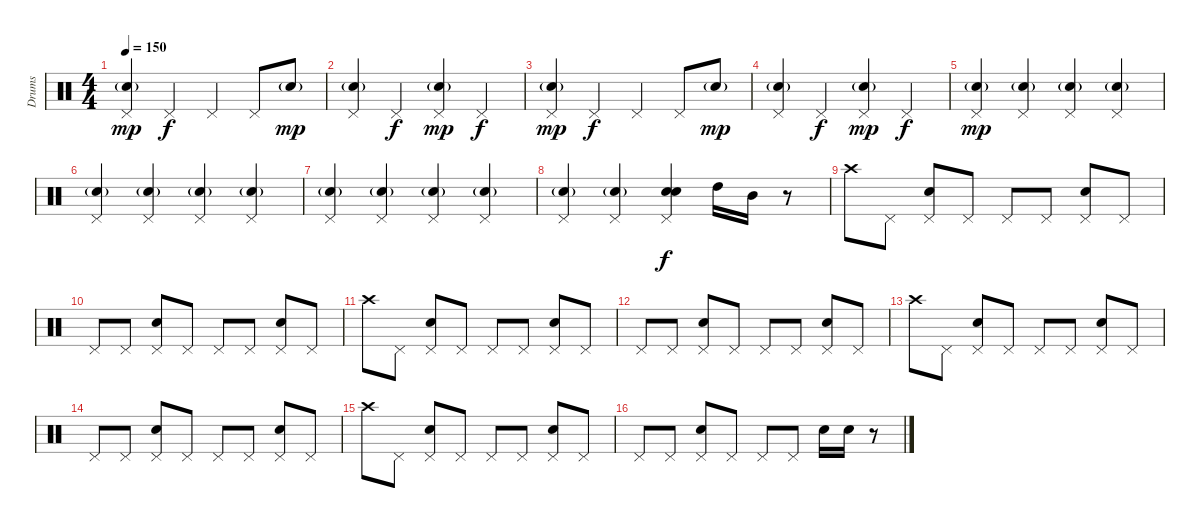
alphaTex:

\track ("Drums" "Drums") {instrument percussion}
\staff {score}
\articulation defaults
\ts (4 4)
\tempo 150
\clef neutral
\ks c
("Pedal Hi-Hat (hit)" "Snare (hit) 2"{g}).4{dy mp} "Pedal Hi-Hat (hit)".4{dy f} "Pedal Hi-Hat (hit)".4 "Pedal Hi-Hat (hit)".8 "Snare (hit) 2"{g}.8{dy mp} |
("Pedal Hi-Hat (hit)" "Snare (hit) 2"{g}).4 "Pedal Hi-Hat (hit)".4{dy f} ("Pedal Hi-Hat (hit)" "Snare (hit) 2"{g}).4{dy mp} "Pedal Hi-Hat (hit)".4{dy f} |
("Pedal Hi-Hat (hit)" "Snare (hit) 2"{g}).4{dy mp} "Pedal Hi-Hat (hit)".4{dy f} "Pedal Hi-Hat (hit)".4 "Pedal Hi-Hat (hit)".8 "Snare (hit) 2"{g}.8{dy mp} |
("Pedal Hi-Hat (hit)" "Snare (hit) 2"{g}).4 "Pedal Hi-Hat (hit)".4{dy f} ("Pedal Hi-Hat (hit)" "Snare (hit) 2"{g}).4{dy mp} "Pedal Hi-Hat (hit)".4{dy f} |
("Pedal Hi-Hat (hit)" "Snare (hit) 2"{g}).4{dy mp} ("Pedal Hi-Hat (hit)" "Snare (hit) 2"{g}).4 ("Pedal Hi-Hat (hit)" "Snare (hit) 2"{g}).4 ("Pedal Hi-Hat (hit)" "Snare (hit) 2"{g}).4 |
("Pedal Hi-Hat (hit)" "Snare (hit) 2"{g}).4 ("Pedal Hi-Hat (hit)" "Snare (hit) 2"{g}).4 ("Pedal Hi-Hat (hit)" "Snare (hit) 2"{g}).4 ("Pedal Hi-Hat (hit)" "Snare (hit) 2"{g}).4 |
("Pedal Hi-Hat (hit)" "Snare (hit) 2"{g}).4 ("Pedal Hi-Hat (hit)" "Snare (hit) 2"{g}).4 ("Pedal Hi-Hat (hit)" "Snare (hit) 2"{g}).4 ("Pedal Hi-Hat (hit)" "Snare (hit) 2"{g}).4 |
("Pedal Hi-Hat (hit)" "Snare (hit) 2"{g}).4 ("Pedal Hi-Hat (hit)" "Snare (hit) 2"{g}).4 ("Pedal Hi-Hat (hit)" "Electric Snare (hit)" "Snare (hit) 2").4{dy f} "High Tom (hit)".16 "Mid Tom (hit)".16 r.8 |
"Crash high (hit)".8 "Pedal Hi-Hat (hit)".8 ("Pedal Hi-Hat (hit)" "Electric Snare (hit)").8 "Pedal Hi-Hat (hit)".8 "Pedal Hi-Hat (hit)".8 "Pedal Hi-Hat (hit)".8 ("Pedal Hi-Hat (hit)" "Electric Snare (hit)").8 "Pedal Hi-Hat (hit)".8 |
"Pedal Hi-Hat (hit)".8 "Pedal Hi-Hat (hit)".8 ("Pedal Hi-Hat (hit)" "Electric Snare (hit)").8 "Pedal Hi-Hat (hit)".8 "Pedal Hi-Hat (hit)".8 "Pedal Hi-Hat (hit)".8 ("Pedal Hi-Hat (hit)" "Electric Snare (hit)").8 "Pedal Hi-Hat (hit)".8 |
"Crash high (hit)".8 "Pedal Hi-Hat (hit)".8 ("Pedal Hi-Hat (hit)" "Electric Snare (hit)").8 "Pedal Hi-Hat (hit)".8 "Pedal Hi-Hat (hit)".8 "Pedal Hi-Hat (hit)".8 ("Pedal Hi-Hat (hit)" "Electric Snare (hit)").8 "Pedal Hi-Hat (hit)".8 |
"Pedal Hi-Hat (hit)".8 "Pedal Hi-Hat (hit)".8 ("Pedal Hi-Hat (hit)" "Electric Snare (hit)").8 "Pedal Hi-Hat (hit)".8 "Pedal Hi-Hat (hit)".8 "Pedal Hi-Hat (hit)".8 ("Pedal Hi-Hat (hit)" "Electric Snare (hit)").8 "Pedal Hi-Hat (hit)".8 |
"Crash high (hit)".8 "Pedal Hi-Hat (hit)".8 ("Pedal Hi-Hat (hit)" "Electric Snare (hit)").8 "Pedal Hi-Hat (hit)".8 "Pedal Hi-Hat (hit)".8 "Pedal Hi-Hat (hit)".8 ("Pedal Hi-Hat (hit)" "Electric Snare (hit)").8 "Pedal Hi-Hat (hit)".8 |
"Pedal Hi-Hat (hit)".8 "Pedal Hi-Hat (hit)".8 ("Pedal Hi-Hat (hit)" "Electric Snare (hit)").8 "Pedal Hi-Hat (hit)".8 "Pedal Hi-Hat (hit)".8 "Pedal Hi-Hat (hit)".8 ("Pedal Hi-Hat (hit)" "Electric Snare (hit)").8 "Pedal Hi-Hat (hit)".8 |
"Crash high (hit)".8 "Pedal Hi-Hat (hit)".8 ("Pedal Hi-Hat (hit)" "Electric Snare (hit)").8 "Pedal Hi-Hat (hit)".8 "Pedal Hi-Hat (hit)".8 "Pedal Hi-Hat (hit)".8 ("Pedal Hi-Hat (hit)" "Electric Snare (hit)").8 "Pedal Hi-Hat (hit)".8 |
"Pedal Hi-Hat (hit)".8 "Pedal Hi-Hat (hit)".8 ("Pedal Hi-Hat (hit)" "Electric Snare (hit)").8 "Pedal Hi-Hat (hit)".8 "Pedal Hi-Hat (hit)".8 "Pedal Hi-Hat (hit)".8 "Electric Snare (hit)".16 "Electric Snare (hit)".16 r.8
